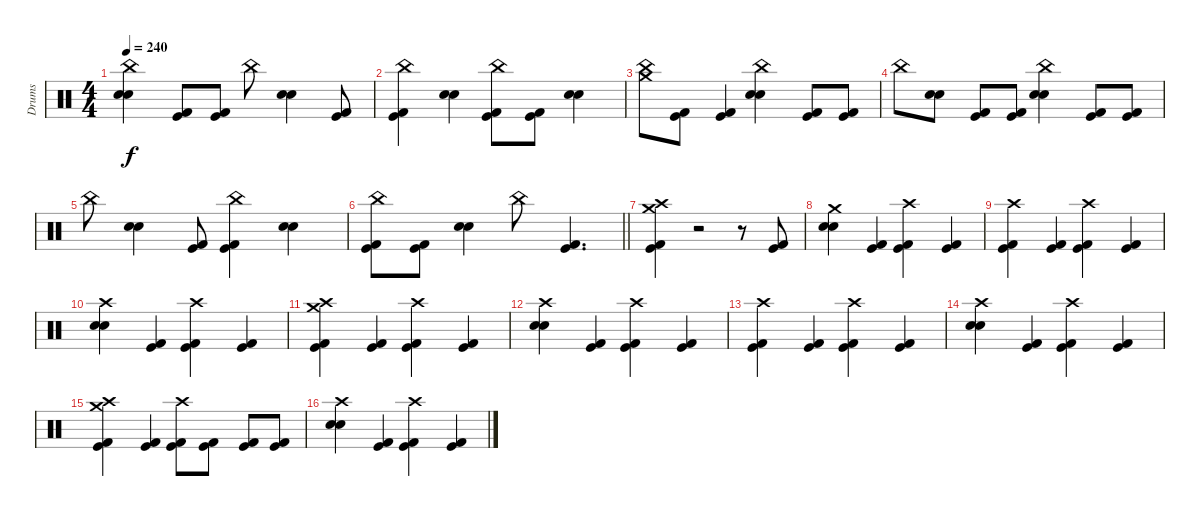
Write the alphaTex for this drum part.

\track ("Drums" "Drums") {instrument percussion bank 10}
\staff {score}
\articulation defaults
\ts (4 4)
\tempo 240
\clef neutral
\ks c
("China (hit)" "Electric Snare (hit)" "Electric Snare (hit)").4{dy f} ("Kick (hit) 2" "Kick (hit)").8 ("Kick (hit) 2" "Kick (hit)").8 "China (hit)".8 ("Electric Snare (hit)" "Electric Snare (hit)").4 ("Kick (hit) 2" "Kick (hit)").8 |
("China (hit)" "Kick (hit) 2" "Kick (hit)").4 ("Electric Snare (hit)" "Electric Snare (hit)").4 ("China (hit)" "Kick (hit) 2" "Kick (hit)").8 ("Kick (hit) 2" "Kick (hit)").8 ("Electric Snare (hit)" "Electric Snare (hit)").4 |
("Crash medium (hit)" "China (hit)").8 ("Kick (hit) 2" "Kick (hit)").8 ("Kick (hit) 2" "Kick (hit)").4 ("China (hit)" "Electric Snare (hit)" "Electric Snare (hit)").4 ("Kick (hit) 2" "Kick (hit)").8 ("Kick (hit) 2" "Kick (hit)").8 |
"China (hit)".8 ("Electric Snare (hit)" "Electric Snare (hit)").8 ("Kick (hit) 2" "Kick (hit)").8 ("Kick (hit) 2" "Kick (hit)").8 ("China (hit)" "Electric Snare (hit)" "Electric Snare (hit)").4 ("Kick (hit) 2" "Kick (hit)").8 ("Kick (hit) 2" "Kick (hit)").8 |
"China (hit)".8 ("Electric Snare (hit)" "Electric Snare (hit)").4 ("Kick (hit) 2" "Kick (hit)").8 ("China (hit)" "Kick (hit) 2" "Kick (hit)").4 ("Electric Snare (hit)" "Electric Snare (hit)").4 |
\barLineRight lightlight
("China (hit)" "Kick (hit) 2" "Kick (hit)").8 ("Kick (hit) 2" "Kick (hit)").8 ("Electric Snare (hit)" "Electric Snare (hit)").4 "China (hit)".8 ("Kick (hit) 2" "Kick (hit)").4{d} |
("Crash high (hit)" "Crash medium (hit)" "Kick (hit) 2" "Kick (hit)").4 r.2 r.8 ("Kick (hit) 2" "Kick (hit)").8 |
("Crash medium (hit)" "Electric Snare (hit)" "Electric Snare (hit)").4 ("Kick (hit) 2" "Kick (hit)").4 ("Crash high (hit)" "Kick (hit) 2" "Kick (hit)").4 ("Kick (hit) 2" "Kick (hit)").4 |
("Crash high (hit)" "Kick (hit) 2" "Kick (hit)").4 ("Kick (hit) 2" "Kick (hit)").4 ("Crash high (hit)" "Kick (hit) 2" "Kick (hit)").4 ("Kick (hit) 2" "Kick (hit)").4 |
("Crash high (hit)" "Electric Snare (hit)" "Electric Snare (hit)").4 ("Kick (hit) 2" "Kick (hit)").4 ("Crash high (hit)" "Kick (hit) 2" "Kick (hit)").4 ("Kick (hit) 2" "Kick (hit)").4 |
("Crash high (hit)" "Crash medium (hit)" "Kick (hit) 2" "Kick (hit)").4 ("Kick (hit) 2" "Kick (hit)").4 ("Crash high (hit)" "Kick (hit) 2" "Kick (hit)").4 ("Kick (hit) 2" "Kick (hit)").4 |
("Crash high (hit)" "Electric Snare (hit)" "Electric Snare (hit)").4 ("Kick (hit) 2" "Kick (hit)").4 ("Crash high (hit)" "Kick (hit) 2" "Kick (hit)").4 ("Kick (hit) 2" "Kick (hit)").4 |
("Crash high (hit)" "Kick (hit) 2" "Kick (hit)").4 ("Kick (hit) 2" "Kick (hit)").4 ("Crash high (hit)" "Kick (hit) 2" "Kick (hit)").4 ("Kick (hit) 2" "Kick (hit)").4 |
("Crash high (hit)" "Electric Snare (hit)" "Electric Snare (hit)").4 ("Kick (hit) 2" "Kick (hit)").4 ("Crash high (hit)" "Kick (hit) 2" "Kick (hit)").4 ("Kick (hit) 2" "Kick (hit)").4 |
("Crash high (hit)" "Crash medium (hit)" "Kick (hit) 2" "Kick (hit)").4 ("Kick (hit) 2" "Kick (hit)").4 ("Crash high (hit)" "Kick (hit) 2" "Kick (hit)").8 ("Kick (hit) 2" "Kick (hit)").8 ("Kick (hit) 2" "Kick (hit)").8 ("Kick (hit) 2" "Kick (hit)").8 |
("Crash high (hit)" "Electric Snare (hit)" "Electric Snare (hit)").4 ("Kick (hit) 2" "Kick (hit)").4 ("Crash high (hit)" "Kick (hit) 2" "Kick (hit)").4 ("Kick (hit) 2" "Kick (hit)").4
